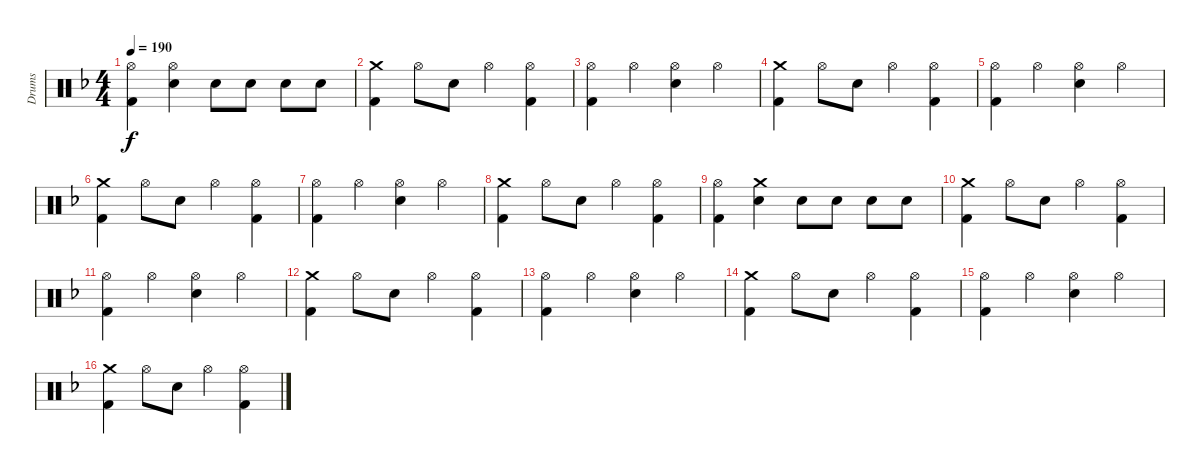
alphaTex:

\track ("Drums" "Drums") {instrument percussion}
\staff {score}
\articulation defaults
\ts (4 4)
\tempo 190
\clef neutral
\ks dminor
("Hi-Hat (open)" "Kick (hit) 2").4{dy f} ("Hi-Hat (open)" "Electric Snare (hit)").4 "Electric Snare (hit)".8 "Electric Snare (hit)".8 "Electric Snare (hit)".8 "Electric Snare (hit)".8 |
("Crash medium (hit)" "Kick (hit) 2").4 "Hi-Hat (open)".8 "Electric Snare (hit)".8 "Hi-Hat (open)".4 ("Hi-Hat (open)" "Kick (hit) 2").4 |
("Hi-Hat (open)" "Kick (hit) 2").4 "Hi-Hat (open)".4 ("Hi-Hat (open)" "Electric Snare (hit)").4 "Hi-Hat (open)".4 |
("Crash medium (hit)" "Kick (hit) 2").4 "Hi-Hat (open)".8 "Electric Snare (hit)".8 "Hi-Hat (open)".4 ("Hi-Hat (open)" "Kick (hit) 2").4 |
("Hi-Hat (open)" "Kick (hit) 2").4 "Hi-Hat (open)".4 ("Hi-Hat (open)" "Electric Snare (hit)").4 "Hi-Hat (open)".4 |
("Crash medium (hit)" "Kick (hit) 2").4 "Hi-Hat (open)".8 "Electric Snare (hit)".8 "Hi-Hat (open)".4 ("Hi-Hat (open)" "Kick (hit) 2").4 |
("Hi-Hat (open)" "Kick (hit) 2").4 "Hi-Hat (open)".4 ("Hi-Hat (open)" "Electric Snare (hit)").4 "Hi-Hat (open)".4 |
("Crash medium (hit)" "Kick (hit) 2").4 "Hi-Hat (open)".8 "Electric Snare (hit)".8 "Hi-Hat (open)".4 ("Hi-Hat (open)" "Kick (hit) 2").4 |
("Hi-Hat (open)" "Kick (hit) 2").4 ("Crash medium (hit)" "Electric Snare (hit)").4 "Electric Snare (hit)".8 "Electric Snare (hit)".8 "Electric Snare (hit)".8 "Electric Snare (hit)".8 |
("Crash medium (hit)" "Kick (hit) 2").4 "Hi-Hat (open)".8 "Electric Snare (hit)".8 "Hi-Hat (open)".4 ("Hi-Hat (open)" "Kick (hit) 2").4 |
("Hi-Hat (open)" "Kick (hit) 2").4 "Hi-Hat (open)".4 ("Hi-Hat (open)" "Electric Snare (hit)").4 "Hi-Hat (open)".4 |
("Crash medium (hit)" "Kick (hit) 2").4 "Hi-Hat (open)".8 "Electric Snare (hit)".8 "Hi-Hat (open)".4 ("Hi-Hat (open)" "Kick (hit) 2").4 |
("Hi-Hat (open)" "Kick (hit) 2").4 "Hi-Hat (open)".4 ("Hi-Hat (open)" "Electric Snare (hit)").4 "Hi-Hat (open)".4 |
("Crash medium (hit)" "Kick (hit) 2").4 "Hi-Hat (open)".8 "Electric Snare (hit)".8 "Hi-Hat (open)".4 ("Hi-Hat (open)" "Kick (hit) 2").4 |
("Hi-Hat (open)" "Kick (hit) 2").4 "Hi-Hat (open)".4 ("Hi-Hat (open)" "Electric Snare (hit)").4 "Hi-Hat (open)".4 |
("Crash medium (hit)" "Kick (hit) 2").4 "Hi-Hat (open)".8 "Electric Snare (hit)".8 "Hi-Hat (open)".4 ("Hi-Hat (open)" "Kick (hit) 2").4
